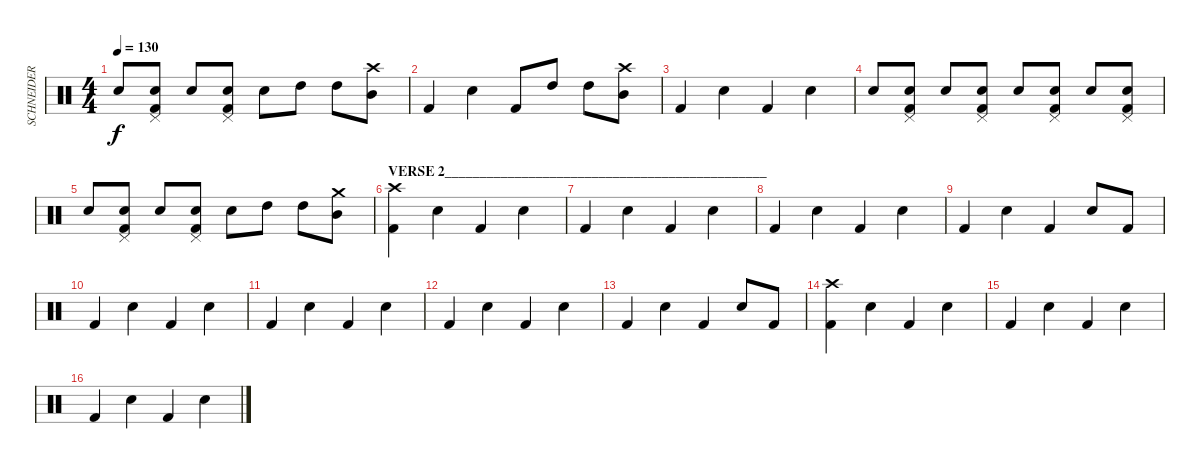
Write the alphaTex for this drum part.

\track ("SCHNEIDER - Drums" "SCHNEIDER ") {instrument percussion}
\staff {score}
\articulation defaults
\ts (4 4)
\tempo 130
\clef neutral
\ks c "Snare (hit) 2".8{dy f}
("Snare (hit) 2" "Kick (hit) 2" "Pedal Hi-Hat (hit)").8 "Snare (hit) 2".8 ("Snare (hit) 2" "Kick (hit) 2" "Pedal Hi-Hat (hit)").8 "Snare (hit) 2".8 "High Tom (hit)".8 "High Tom (hit)".8 ("Mid Tom (hit)" "Crash high (hit)").8 |
"Kick (hit) 2".4 "Snare (hit) 2".4 "Kick (hit) 2".8 "High Tom (hit)".8 "High Tom (hit)".8 ("Mid Tom (hit)" "Crash high (hit)").8 |
"Kick (hit) 2".4 "Snare (hit) 2".4 "Kick (hit) 2".4 "Snare (hit) 2".4 |
"Snare (hit) 2".8 ("Snare (hit) 2" "Kick (hit) 2" "Pedal Hi-Hat (hit)").8 "Snare (hit) 2".8 ("Snare (hit) 2" "Kick (hit) 2" "Pedal Hi-Hat (hit)").8 "Snare (hit) 2".8 ("Snare (hit) 2" "Kick (hit) 2" "Pedal Hi-Hat (hit)").8 "Snare (hit) 2".8 ("Snare (hit) 2" "Kick (hit) 2" "Pedal Hi-Hat (hit)").8 |
"Snare (hit) 2".8 ("Snare (hit) 2" "Kick (hit) 2" "Pedal Hi-Hat (hit)").8 "Snare (hit) 2".8 ("Snare (hit) 2" "Kick (hit) 2" "Pedal Hi-Hat (hit)").8 "Snare (hit) 2".8 "High Tom (hit)".8 "High Tom (hit)".8 ("Mid Tom (hit)" "Crash medium (hit)").8 |
\section ("" "VERSE 2______________________________________________")
("Crash high (hit)" "Kick (hit) 2").4 "Snare (hit) 2".4 "Kick (hit) 2".4 "Snare (hit) 2".4 |
"Kick (hit) 2".4 "Snare (hit) 2".4 "Kick (hit) 2".4 "Snare (hit) 2".4 |
"Kick (hit) 2".4 "Snare (hit) 2".4 "Kick (hit) 2".4 "Snare (hit) 2".4 |
"Kick (hit) 2".4 "Snare (hit) 2".4 "Kick (hit) 2".4 "Snare (hit) 2".8 "Kick (hit) 2".8 |
"Kick (hit) 2".4 "Snare (hit) 2".4 "Kick (hit) 2".4 "Snare (hit) 2".4 |
"Kick (hit) 2".4 "Snare (hit) 2".4 "Kick (hit) 2".4 "Snare (hit) 2".4 |
"Kick (hit) 2".4 "Snare (hit) 2".4 "Kick (hit) 2".4 "Snare (hit) 2".4 |
"Kick (hit) 2".4 "Snare (hit) 2".4 "Kick (hit) 2".4 "Snare (hit) 2".8 "Kick (hit) 2".8 |
("Crash high (hit)" "Kick (hit) 2").4 "Snare (hit) 2".4 "Kick (hit) 2".4 "Snare (hit) 2".4 |
"Kick (hit) 2".4 "Snare (hit) 2".4 "Kick (hit) 2".4 "Snare (hit) 2".4 |
"Kick (hit) 2".4 "Snare (hit) 2".4 "Kick (hit) 2".4 "Snare (hit) 2".4
